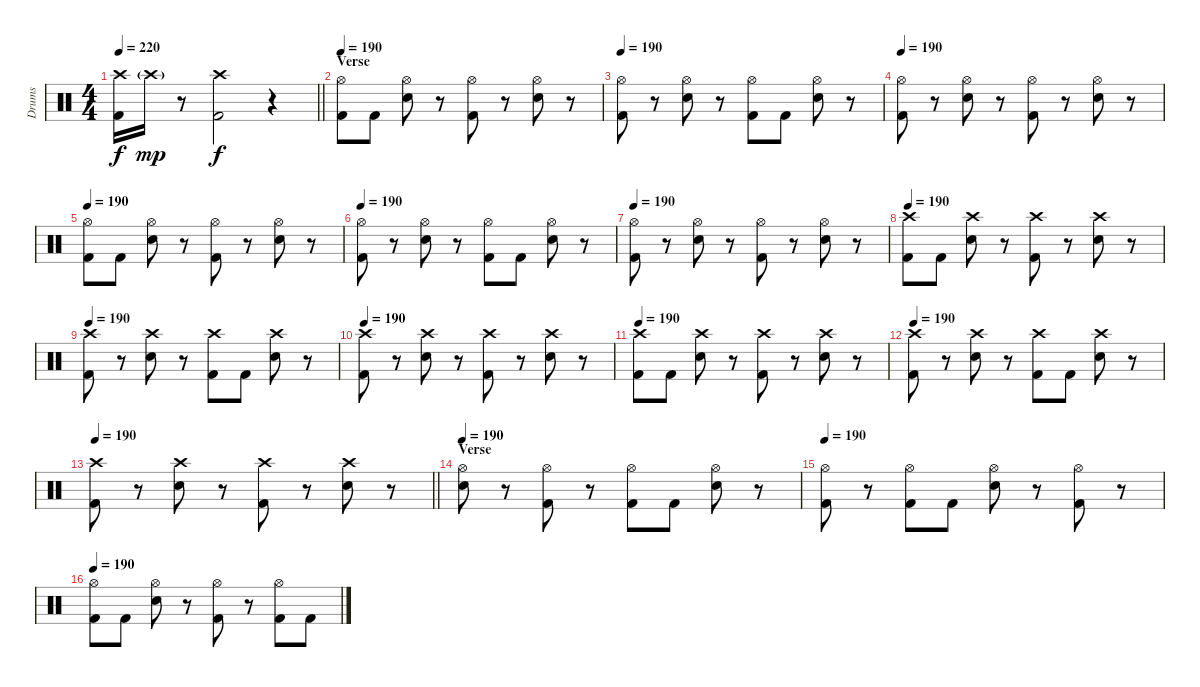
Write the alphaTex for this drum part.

\track ("Drums" "Drums") {instrument percussion}
\staff {score}
\articulation defaults
\ts (4 4)
\tempo 220
\clef neutral
\barLineRight lightlight
\ks c
("Crash high (hit)" "Kick (hit) 2").16{dy f} "Crash high (hit)"{g}.16{dy mp} r.8 ("Crash high (hit)" "Kick (hit) 2").2{dy f} r.4 |
\section ("" "Verse")
\tempo 190
("Hi-Hat (open)" "Kick (hit) 2").8 "Kick (hit) 2".8 ("Hi-Hat (open)" "Electric Snare (hit)").8 r.8 ("Hi-Hat (open)" "Kick (hit) 2").8 r.8 ("Hi-Hat (open)" "Electric Snare (hit)").8 r.8 |
\tempo 190
("Hi-Hat (open)" "Kick (hit) 2").8 r.8 ("Hi-Hat (open)" "Electric Snare (hit)").8 r.8 ("Hi-Hat (open)" "Kick (hit) 2").8 "Kick (hit) 2".8 ("Hi-Hat (open)" "Electric Snare (hit)").8 r.8 |
\tempo 190
("Hi-Hat (open)" "Kick (hit) 2").8 r.8 ("Hi-Hat (open)" "Electric Snare (hit)").8 r.8 ("Hi-Hat (open)" "Kick (hit) 2").8 r.8 ("Hi-Hat (open)" "Electric Snare (hit)").8 r.8 |
\tempo 190
("Hi-Hat (open)" "Kick (hit) 2").8 "Kick (hit) 2".8 ("Hi-Hat (open)" "Electric Snare (hit)").8 r.8 ("Hi-Hat (open)" "Kick (hit) 2").8 r.8 ("Hi-Hat (open)" "Electric Snare (hit)").8 r.8 |
\tempo 190
("Hi-Hat (open)" "Kick (hit) 2").8 r.8 ("Hi-Hat (open)" "Electric Snare (hit)").8 r.8 ("Hi-Hat (open)" "Kick (hit) 2").8 "Kick (hit) 2".8 ("Hi-Hat (open)" "Electric Snare (hit)").8 r.8 |
\tempo 190
("Hi-Hat (open)" "Kick (hit) 2").8 r.8 ("Hi-Hat (open)" "Electric Snare (hit)").8 r.8 ("Hi-Hat (open)" "Kick (hit) 2").8 r.8 ("Hi-Hat (open)" "Electric Snare (hit)").8 r.8 |
\tempo 190
("Crash high (hit)" "Kick (hit) 2").8 "Kick (hit) 2".8 ("Crash high (hit)" "Electric Snare (hit)").8 r.8 ("Crash high (hit)" "Kick (hit) 2").8 r.8 ("Crash high (hit)" "Electric Snare (hit)").8 r.8 |
\tempo 190
("Crash high (hit)" "Kick (hit) 2").8 r.8 ("Crash high (hit)" "Electric Snare (hit)").8 r.8 ("Crash high (hit)" "Kick (hit) 2").8 "Kick (hit) 2".8 ("Crash high (hit)" "Electric Snare (hit)").8 r.8 |
\tempo 190
("Crash high (hit)" "Kick (hit) 2").8 r.8 ("Crash high (hit)" "Electric Snare (hit)").8 r.8 ("Crash high (hit)" "Kick (hit) 2").8 r.8 ("Crash high (hit)" "Electric Snare (hit)").8 r.8 |
\tempo 190
("Crash high (hit)" "Kick (hit) 2").8 "Kick (hit) 2".8 ("Crash high (hit)" "Electric Snare (hit)").8 r.8 ("Crash high (hit)" "Kick (hit) 2").8 r.8 ("Crash high (hit)" "Electric Snare (hit)").8 r.8 |
\tempo 190
("Crash high (hit)" "Kick (hit) 2").8 r.8 ("Crash high (hit)" "Electric Snare (hit)").8 r.8 ("Crash high (hit)" "Kick (hit) 2").8 "Kick (hit) 2".8 ("Crash high (hit)" "Electric Snare (hit)").8 r.8 |
\tempo 190
\barLineRight lightlight
("Crash high (hit)" "Kick (hit) 2").8 r.8 ("Crash high (hit)" "Electric Snare (hit)").8 r.8 ("Crash high (hit)" "Kick (hit) 2").8 r.8 ("Crash high (hit)" "Electric Snare (hit)").8 r.8 |
\section ("" "Verse")
\tempo 190
("Hi-Hat (open)" "Electric Snare (hit)").8 r.8 ("Hi-Hat (open)" "Kick (hit) 2").8 r.8 ("Hi-Hat (open)" "Kick (hit) 2").8 "Kick (hit) 2".8 ("Hi-Hat (open)" "Electric Snare (hit)").8 r.8 |
\tempo 190
("Hi-Hat (open)" "Kick (hit) 2").8 r.8 ("Hi-Hat (open)" "Kick (hit) 2").8 "Kick (hit) 2".8 ("Hi-Hat (open)" "Electric Snare (hit)").8 r.8 ("Hi-Hat (open)" "Kick (hit) 2").8 r.8 |
\tempo 190
("Hi-Hat (open)" "Kick (hit) 2").8 "Kick (hit) 2".8 ("Hi-Hat (open)" "Electric Snare (hit)").8 r.8 ("Hi-Hat (open)" "Kick (hit) 2").8 r.8 ("Hi-Hat (open)" "Kick (hit) 2").8 "Kick (hit) 2".8
